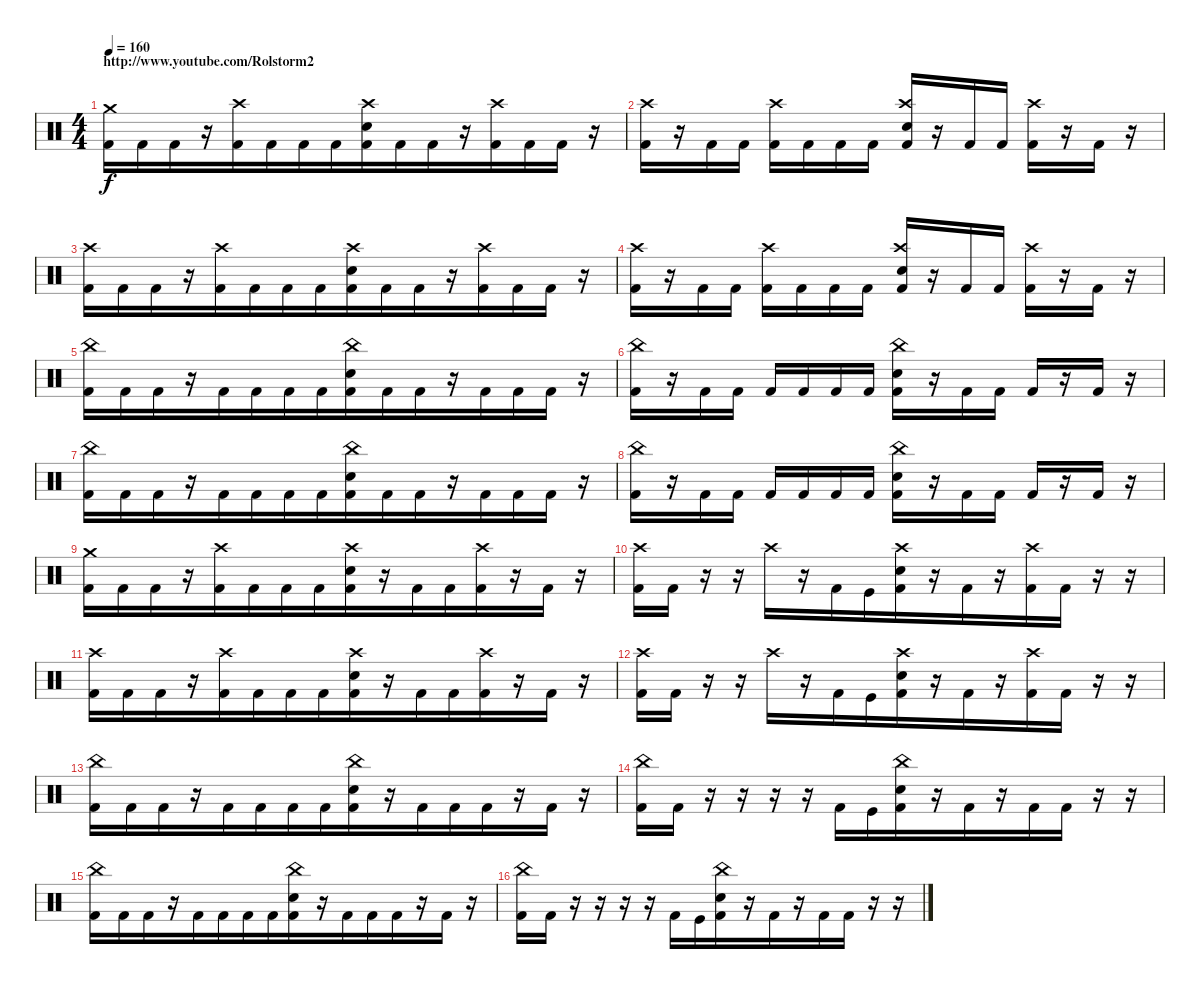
\track "" {instrument percussion}
\staff {score}
\articulation defaults
\ts (4 4)
\section ("" "http://www.youtube.com/Rolstorm2")
\tempo 160
\clef neutral
\ks c
("Crash medium (hit)" "Kick (hit) 2").16{dy f} "Kick (hit) 2".16 "Kick (hit) 2".16{beam merge} r.16 ("Crash high (hit)" "Kick (hit) 2").16 "Kick (hit) 2".16{beam merge} "Kick (hit) 2".16 "Kick (hit) 2".16{beam merge} ("Crash high (hit)" "Electric Snare (hit)" "Kick (hit) 2").16 "Kick (hit) 2".16 "Kick (hit) 2".16{beam merge} r.16{beam merge} ("Crash high (hit)" "Kick (hit) 2").16{beam merge} "Kick (hit) 2".16 "Kick (hit) 2".16 r.16 |
("Crash high (hit)" "Kick (hit) 2").16{beam merge} r.16 "Kick (hit) 2".16 "Kick (hit) 2".16 ("Crash high (hit)" "Kick (hit) 2").16 "Kick (hit) 2".16 "Kick (hit) 2".16{beam merge} "Kick (hit) 2".16 ("Crash high (hit)" "Electric Snare (hit)" "Kick (hit) 2").16 r.16{beam merge} "Kick (hit) 2".16{beam merge} "Kick (hit) 2".16 ("Crash high (hit)" "Kick (hit) 2").16 r.16 "Kick (hit) 2".16{beam merge} r.16 |
("Crash high (hit)" "Kick (hit) 2").16 "Kick (hit) 2".16 "Kick (hit) 2".16{beam merge} r.16 ("Crash high (hit)" "Kick (hit) 2").16 "Kick (hit) 2".16{beam merge} "Kick (hit) 2".16 "Kick (hit) 2".16{beam merge} ("Crash high (hit)" "Electric Snare (hit)" "Kick (hit) 2").16 "Kick (hit) 2".16 "Kick (hit) 2".16{beam merge} r.16{beam merge} ("Crash high (hit)" "Kick (hit) 2").16{beam merge} "Kick (hit) 2".16 "Kick (hit) 2".16 r.16 |
("Crash high (hit)" "Kick (hit) 2").16{beam merge} r.16 "Kick (hit) 2".16 "Kick (hit) 2".16 ("Crash high (hit)" "Kick (hit) 2").16 "Kick (hit) 2".16 "Kick (hit) 2".16{beam merge} "Kick (hit) 2".16 ("Crash high (hit)" "Electric Snare (hit)" "Kick (hit) 2").16 r.16{beam merge} "Kick (hit) 2".16{beam merge} "Kick (hit) 2".16 ("Crash high (hit)" "Kick (hit) 2").16 r.16 "Kick (hit) 2".16{beam merge} r.16 |
("China (hit)" "Kick (hit) 2").16 "Kick (hit) 2".16 "Kick (hit) 2".16{beam merge} r.16 "Kick (hit) 2".16 "Kick (hit) 2".16{beam merge} "Kick (hit) 2".16 "Kick (hit) 2".16{beam merge} ("China (hit)" "Electric Snare (hit)" "Kick (hit) 2").16 "Kick (hit) 2".16 "Kick (hit) 2".16{beam merge} r.16{beam merge} "Kick (hit) 2".16{beam merge} "Kick (hit) 2".16 "Kick (hit) 2".16 r.16 |
("China (hit)" "Kick (hit) 2").16{beam merge} r.16 "Kick (hit) 2".16 "Kick (hit) 2".16 "Kick (hit) 2".16 "Kick (hit) 2".16 "Kick (hit) 2".16{beam merge} "Kick (hit) 2".16 ("China (hit)" "Electric Snare (hit)" "Kick (hit) 2").16 r.16{beam merge} "Kick (hit) 2".16{beam merge} "Kick (hit) 2".16 "Kick (hit) 2".16 r.16 "Kick (hit) 2".16{beam merge} r.16 |
("China (hit)" "Kick (hit) 2").16 "Kick (hit) 2".16 "Kick (hit) 2".16{beam merge} r.16 "Kick (hit) 2".16 "Kick (hit) 2".16{beam merge} "Kick (hit) 2".16 "Kick (hit) 2".16{beam merge} ("China (hit)" "Electric Snare (hit)" "Kick (hit) 2").16 "Kick (hit) 2".16 "Kick (hit) 2".16{beam merge} r.16{beam merge} "Kick (hit) 2".16{beam merge} "Kick (hit) 2".16 "Kick (hit) 2".16 r.16 |
("China (hit)" "Kick (hit) 2").16{beam merge} r.16 "Kick (hit) 2".16 "Kick (hit) 2".16 "Kick (hit) 2".16 "Kick (hit) 2".16 "Kick (hit) 2".16{beam merge} "Kick (hit) 2".16 ("China (hit)" "Electric Snare (hit)" "Kick (hit) 2").16 r.16{beam merge} "Kick (hit) 2".16{beam merge} "Kick (hit) 2".16 "Kick (hit) 2".16 r.16 "Kick (hit) 2".16{beam merge} r.16 |
("Crash medium (hit)" "Kick (hit) 2").16 "Kick (hit) 2".16 "Kick (hit) 2".16{beam merge} r.16 ("Crash high (hit)" "Kick (hit) 2").16 "Kick (hit) 2".16{beam merge} "Kick (hit) 2".16 "Kick (hit) 2".16{beam merge} ("Crash high (hit)" "Electric Snare (hit)" "Kick (hit) 2").16 r.16 "Kick (hit) 2".16{beam merge} "Kick (hit) 2".16{beam merge} ("Crash high (hit)" "Kick (hit) 2").16{beam merge} r.16 "Kick (hit) 2".16 r.16 |
("Crash high (hit)" "Kick (hit) 2").16 "Kick (hit) 2".16 r.16{beam merge} r.16 "Crash high (hit)".16 r.16{beam merge} "Kick (hit) 2".16 "Kick (hit)".16{beam merge} ("Crash high (hit)" "Electric Snare (hit)" "Kick (hit) 2").16 r.16 "Kick (hit) 2".16{beam merge} r.16{beam merge} ("Crash high (hit)" "Kick (hit) 2").16{beam merge} "Kick (hit) 2".16 r.16 r.16 |
("Crash high (hit)" "Kick (hit) 2").16 "Kick (hit) 2".16 "Kick (hit) 2".16{beam merge} r.16 ("Crash high (hit)" "Kick (hit) 2").16 "Kick (hit) 2".16{beam merge} "Kick (hit) 2".16 "Kick (hit) 2".16{beam merge} ("Crash high (hit)" "Electric Snare (hit)" "Kick (hit) 2").16 r.16 "Kick (hit) 2".16{beam merge} "Kick (hit) 2".16{beam merge} ("Crash high (hit)" "Kick (hit) 2").16{beam merge} r.16 "Kick (hit) 2".16 r.16 |
("Crash high (hit)" "Kick (hit) 2").16 "Kick (hit) 2".16 r.16{beam merge} r.16 "Crash high (hit)".16 r.16{beam merge} "Kick (hit) 2".16 "Kick (hit)".16{beam merge} ("Crash high (hit)" "Electric Snare (hit)" "Kick (hit) 2").16 r.16 "Kick (hit) 2".16{beam merge} r.16{beam merge} ("Crash high (hit)" "Kick (hit) 2").16{beam merge} "Kick (hit) 2".16 r.16 r.16 |
("China (hit)" "Kick (hit) 2").16 "Kick (hit) 2".16 "Kick (hit) 2".16{beam merge} r.16 "Kick (hit) 2".16 "Kick (hit) 2".16{beam merge} "Kick (hit) 2".16 "Kick (hit) 2".16{beam merge} ("China (hit)" "Electric Snare (hit)" "Kick (hit) 2").16 r.16 "Kick (hit) 2".16{beam merge} "Kick (hit) 2".16{beam merge} "Kick (hit) 2".16{beam merge} r.16 "Kick (hit) 2".16 r.16 |
("China (hit)" "Kick (hit) 2").16 "Kick (hit) 2".16 r.16{beam merge} r.16 r.16 r.16{beam merge} "Kick (hit) 2".16 "Kick (hit)".16{beam merge} ("China (hit)" "Electric Snare (hit)" "Kick (hit) 2").16 r.16 "Kick (hit) 2".16{beam merge} r.16{beam merge} "Kick (hit) 2".16{beam merge} "Kick (hit) 2".16 r.16 r.16 |
("China (hit)" "Kick (hit) 2").16 "Kick (hit) 2".16 "Kick (hit) 2".16{beam merge} r.16 "Kick (hit) 2".16 "Kick (hit) 2".16{beam merge} "Kick (hit) 2".16 "Kick (hit) 2".16{beam merge} ("China (hit)" "Electric Snare (hit)" "Kick (hit) 2").16 r.16 "Kick (hit) 2".16{beam merge} "Kick (hit) 2".16{beam merge} "Kick (hit) 2".16{beam merge} r.16 "Kick (hit) 2".16 r.16 |
("China (hit)" "Kick (hit) 2").16 "Kick (hit) 2".16 r.16{beam merge} r.16 r.16 r.16{beam merge} "Kick (hit) 2".16 "Kick (hit)".16{beam merge} ("China (hit)" "Electric Snare (hit)" "Kick (hit) 2").16 r.16 "Kick (hit) 2".16{beam merge} r.16{beam merge} "Kick (hit) 2".16{beam merge} "Kick (hit) 2".16 r.16 r.16
